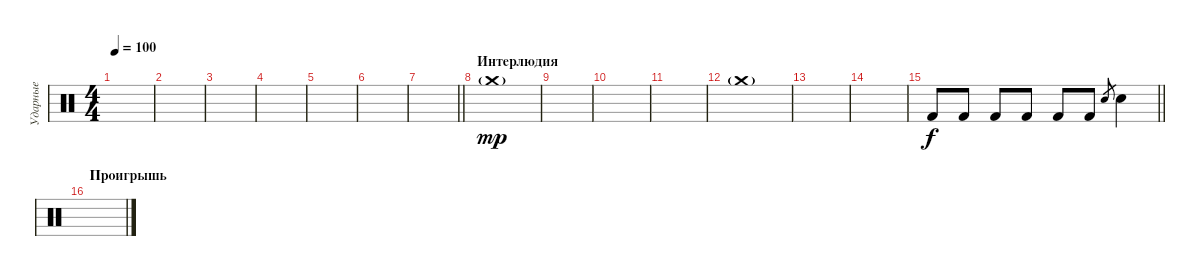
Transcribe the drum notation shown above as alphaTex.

\track ("Ударные" "Ударные") {instrument percussion}
\staff {score}
\articulation defaults
\ts (4 4)
\tempo 100
\clef neutral
\ks c
|
|
|
|
|
|
\barLineRight lightlight
|
\section ("" "Интерлюдия")
"Crash medium (hit)"{g}.1{dy mp} |
|
|
|
"Crash medium (hit)"{g}.1 |
|
|
\barLineRight lightlight "Kick (hit) 2".8{dy f} "Kick (hit) 2".8 "Kick (hit) 2".8 "Kick (hit) 2".8 "Kick (hit) 2".8 "Kick (hit) 2".8 "Electric Snare (hit)".8{gr} "Electric Snare (hit)".4
|
\section ("" "Проигрышь")
